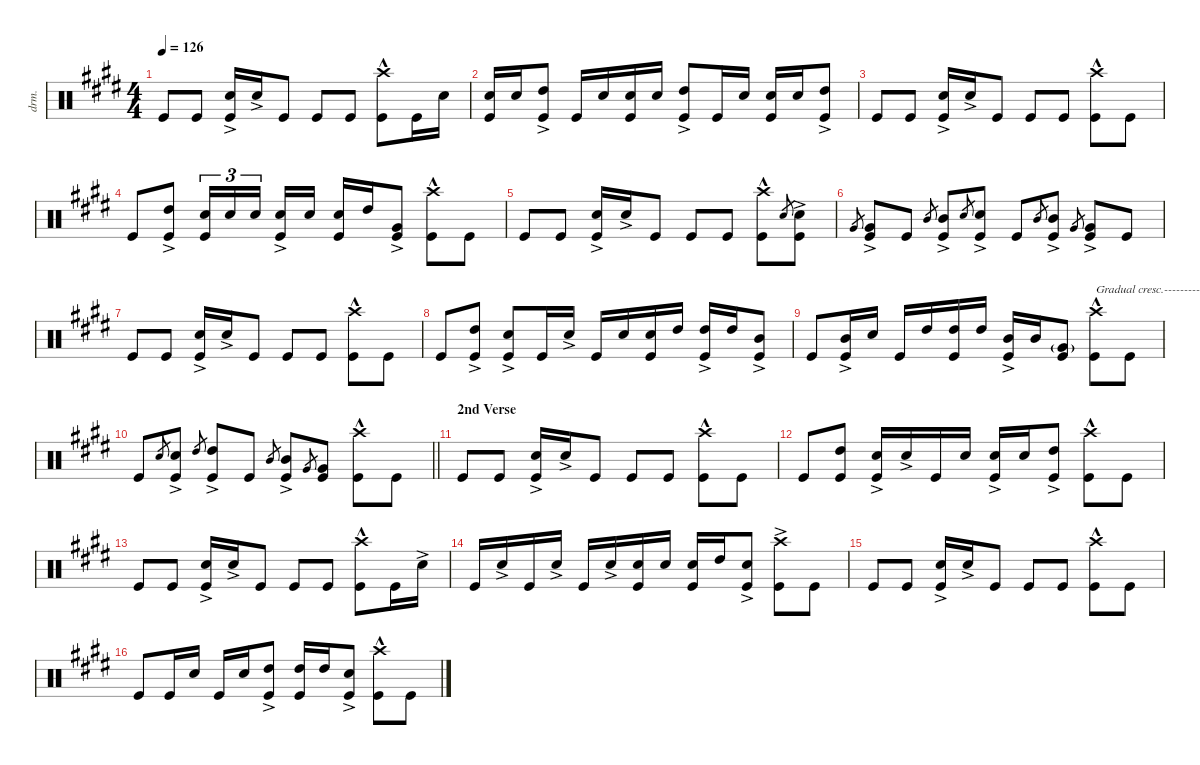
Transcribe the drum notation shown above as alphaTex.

\defaultSystemsLayout 4
\hideDynamics
\bracketExtendMode nobrackets
\otherSystemsTrackNameOrientation horizontal
\track ("Mitch" "drm.") {instrument percussion}
\staff {score}
\articulation defaults
\ts (4 4)
\tempo 126
\clef neutral
\ks e "Kick (hit)"{acc forcenatural}.8{dy f beam Up} "Kick (hit)"{acc forcenatural}.8{beam Up}
("Snare (hit) 2"{ac acc forcenatural} "Kick (hit)"{acc forcenatural}).16{beam Up} "Snare (hit) 2"{ac acc forcenatural}.16{beam Up} "Kick (hit)"{acc forcenatural}.8{beam Up} "Kick (hit)"{acc forcenatural}.8{beam Up} "Kick (hit)"{acc forcenatural}.8{beam Up} ("Crash high (hit)"{hac acc forcenatural} "Kick (hit)"{acc forcenatural}).8{beam Down} "Kick (hit)"{acc forcenatural}.16{beam Down} "Snare (hit) 2"{acc forcenatural}.16{beam Down} |
("Snare (hit) 2"{acc forcenatural} "Kick (hit)"{acc forcenatural}).16{beam Up} "Snare (hit) 2"{acc forcenatural}.16{beam Up} ("High Tom (hit)"{ac acc forcenatural} "Kick (hit)"{acc forcenatural}).8{beam Up} "Kick (hit)"{acc forcenatural}.16{beam Up} "Snare (hit) 2"{acc forcenatural}.16{beam Up} ("Snare (hit) 2"{acc forcenatural} "Kick (hit)"{acc forcenatural}).16{beam Up} "Snare (hit) 2"{acc forcenatural}.16{beam Up} ("High Tom (hit)"{ac acc forcenatural} "Kick (hit)"{acc forcenatural}).8{beam Up} "Kick (hit)"{acc forcenatural}.16{beam Up} "Snare (hit) 2"{acc forcenatural}.16{beam Up} ("Snare (hit) 2"{acc forcenatural} "Kick (hit)"{acc forcenatural}).16{beam Up} "Snare (hit) 2"{acc forcenatural}.16{beam Up} ("High Tom (hit)"{ac acc forcenatural} "Kick (hit)"{acc forcenatural}).8{beam Up} |
"Kick (hit)"{acc forcenatural}.8{beam Up} "Kick (hit)"{acc forcenatural}.8{beam Up} ("Snare (hit) 2"{ac acc forcenatural} "Kick (hit)"{acc forcenatural}).16{beam Up} "Snare (hit) 2"{ac acc forcenatural}.16{beam Up} "Kick (hit)"{acc forcenatural}.8{beam Up} "Kick (hit)"{acc forcenatural}.8{beam Up} "Kick (hit)"{acc forcenatural}.8{beam Up} ("Crash high (hit)"{hac acc forcenatural} "Kick (hit)"{acc forcenatural}).8{beam Down} "Kick (hit)"{acc forcenatural}.8{beam Down} |
"Kick (hit)"{acc forcenatural}.8{beam Up} ("High Tom (hit)"{ac acc forcenatural} "Kick (hit)"{acc forcenatural}).8{beam Up} ("Snare (hit) 2"{acc forcenatural} "Kick (hit)"{acc forcenatural}).16{tu (3 2) beam Up} "Snare (hit) 2"{acc forcenatural}.16{tu (3 2) beam Up} "Snare (hit) 2"{acc forcenatural}.16{tu (3 2) beam Up} ("Snare (hit) 2"{ac acc forcenatural} "Kick (hit)"{acc forcenatural}).16{beam Up} "Snare (hit) 2"{acc forcenatural}.16{beam Up} ("Snare (hit) 2"{acc forcenatural} "Kick (hit)"{acc forcenatural}).16{beam Up} "High Tom (hit)"{acc forcenatural}.16{beam Up} ("Very Low Tom (hit)"{ac acc forcenatural} "Kick (hit)"{acc forcenatural}).8{beam Up} ("Crash high (hit)"{hac acc forcenatural} "Kick (hit)"{acc forcenatural}).8{beam Down} "Kick (hit)"{acc forcenatural}.8{beam Down} |
"Kick (hit)"{acc forcenatural}.8{beam Up} "Kick (hit)"{acc forcenatural}.8{beam Up} ("Snare (hit) 2"{ac acc forcenatural} "Kick (hit)"{acc forcenatural}).16{beam Up} "Snare (hit) 2"{ac acc forcenatural}.16{beam Up} "Kick (hit)"{acc forcenatural}.8{beam Up} "Kick (hit)"{acc forcenatural}.8{beam Up} "Kick (hit)"{acc forcenatural}.8{beam Up} ("Crash high (hit)"{hac acc forcenatural} "Kick (hit)"{acc forcenatural}).8{beam Down} "Snare (hit) 2"{acc forcenatural}.8{gr beam Up} ("Snare (hit) 2"{ac acc forcenatural} "Kick (hit)"{acc forcenatural}).8{beam Down} |
"Very Low Tom (hit)"{acc forcenatural}.8{gr beam Up} ("Very Low Tom (hit)"{ac acc forcenatural} "Kick (hit)"{acc forcenatural}).8{beam Up} "Kick (hit)"{acc forcenatural}.8{beam Up} "Mid Tom (hit)"{acc forcenatural}.8{gr beam Up} ("Mid Tom (hit)"{ac acc forcenatural} "Kick (hit)"{acc forcenatural}).8{beam Up} "Snare (hit) 2"{acc forcenatural}.8{gr beam Up} ("Snare (hit) 2"{ac acc forcenatural} "Kick (hit)"{acc forcenatural}).8{beam Up} "Kick (hit)"{acc forcenatural}.8{beam Up} "Mid Tom (hit)"{acc forcenatural}.8{gr beam Up} ("Mid Tom (hit)"{ac acc forcenatural} "Kick (hit)"{acc forcenatural}).8{beam Up} "Very Low Tom (hit)"{acc forcenatural}.8{gr beam Up} ("Very Low Tom (hit)"{ac acc forcenatural} "Kick (hit)"{acc forcenatural}).8{beam Up} "Kick (hit)"{acc forcenatural}.8{beam Up} |
"Kick (hit)"{acc forcenatural}.8{beam Up} "Kick (hit)"{acc forcenatural}.8{beam Up} ("Snare (hit) 2"{ac acc forcenatural} "Kick (hit)"{acc forcenatural}).16{beam Up} "Snare (hit) 2"{ac acc forcenatural}.16{beam Up} "Kick (hit)"{acc forcenatural}.8{beam Up} "Kick (hit)"{acc forcenatural}.8{beam Up} "Kick (hit)"{acc forcenatural}.8{beam Up} ("Crash high (hit)"{hac acc forcenatural} "Kick (hit)"{acc forcenatural}).8{beam Down} "Kick (hit)"{acc forcenatural}.8{beam Down} |
"Kick (hit)"{acc forcenatural}.8{beam Up} ("High Tom (hit)"{ac acc forcenatural} "Kick (hit)"{acc forcenatural}).8{beam Up} ("Snare (hit) 2"{ac acc forcenatural} "Kick (hit)"{acc forcenatural}).8{beam Up} "Kick (hit)"{acc forcenatural}.16{beam Up} "Snare (hit) 2"{ac acc forcenatural}.16{beam Up} "Kick (hit)"{acc forcenatural}.16{beam Up} "Snare (hit) 2"{acc forcenatural}.16{beam Up} ("Snare (hit) 2"{acc forcenatural} "Kick (hit)"{acc forcenatural}).16{beam Up} "High Tom (hit)"{acc forcenatural}.16{beam Up} ("High Tom (hit)"{ac acc forcenatural} "Kick (hit)"{acc forcenatural}).16{beam Up} "High Tom (hit)"{acc forcenatural}.16{beam Up} ("Mid Tom (hit)"{ac acc forcenatural} "Kick (hit)"{acc forcenatural}).8{beam Up} |
"Kick (hit)"{acc forcenatural}.8{beam Up} ("Mid Tom (hit)"{ac acc forcenatural} "Kick (hit)"{acc forcenatural}).16{beam Up} "Snare (hit) 2"{acc forcenatural}.16{beam Up} "Kick (hit)"{acc forcenatural}.16{beam Up} "High Tom (hit)"{acc forcenatural}.16{beam Up} ("High Tom (hit)"{acc forcenatural} "Kick (hit)"{acc forcenatural}).16{beam Up} "High Tom (hit)"{acc forcenatural}.16{beam Up} ("Mid Tom (hit)"{ac acc forcenatural} "Kick (hit)"{acc forcenatural}).16{beam Up} "Mid Tom (hit)"{acc forcenatural}.16{beam Up} ("Very Low Tom (hit)"{g acc forcenatural} "Kick (hit)"{acc forcenatural}).8{beam Up} ("Crash high (hit)"{hac acc forcenatural} "Kick (hit)"{acc forcenatural}).8{txt "Gradual cresc.---------------------------------" beam Down} "Kick (hit)"{acc forcenatural}.8{beam Down} |
\barLineRight lightlight "Kick (hit)"{acc forcenatural}.8{beam Up} "Snare (hit) 2"{acc forcenatural}.8{gr dy mf beam Up}
("Snare (hit) 2"{ac acc forcenatural} "Kick (hit)"{acc forcenatural}).8{dy f beam Up} "High Tom (hit)"{acc forcenatural}.8{gr beam Up} ("High Tom (hit)"{ac acc forcenatural} "Kick (hit)"{acc forcenatural}).8{beam Up} "Kick (hit)"{acc forcenatural}.8{beam Up} "Mid Tom (hit)"{acc forcenatural}.8{gr beam Up} ("Mid Tom (hit)"{ac acc forcenatural} "Kick (hit)"{acc forcenatural}).8{beam Up} "Very Low Tom (hit)"{acc forcenatural}.8{gr dy mf beam Up} ("Very Low Tom (hit)"{acc forcenatural} "Kick (hit)"{acc forcenatural}).8{dy f beam Up} ("Crash high (hit)"{hac acc forcenatural} "Kick (hit)"{acc forcenatural}).8{beam Down} "Kick (hit)"{acc forcenatural}.8{beam Down} |
\section ("" "2nd Verse")
"Kick (hit)"{acc forcenatural}.8{beam Up} "Kick (hit)"{acc forcenatural}.8{beam Up} ("Snare (hit) 2"{ac acc forcenatural} "Kick (hit)"{acc forcenatural}).16{beam Up} "Snare (hit) 2"{ac acc forcenatural}.16{beam Up} "Kick (hit)"{acc forcenatural}.8{beam Up} "Kick (hit)"{acc forcenatural}.8{beam Up} "Kick (hit)"{acc forcenatural}.8{beam Up} ("Crash high (hit)"{hac acc forcenatural} "Kick (hit)"{acc forcenatural}).8{beam Down} "Kick (hit)"{acc forcenatural}.8{beam Down} |
"Kick (hit)"{acc forcenatural}.8{beam Up} ("High Tom (hit)"{acc forcenatural} "Kick (hit)"{acc forcenatural}).8{beam Up} ("Snare (hit) 2"{ac acc forcenatural} "Kick (hit)"{acc forcenatural}).16{beam Up} "Snare (hit) 2"{ac acc forcenatural}.16{beam Up} "Kick (hit)"{acc forcenatural}.16{beam Up} "Snare (hit) 2"{acc forcenatural}.16{beam Up} ("Snare (hit) 2"{ac acc forcenatural} "Kick (hit)"{acc forcenatural}).16{beam Up} "Snare (hit) 2"{acc forcenatural}.16{beam Up} ("High Tom (hit)"{ac acc forcenatural} "Kick (hit)"{acc forcenatural}).8{beam Up} ("Crash high (hit)"{hac acc forcenatural} "Kick (hit)"{acc forcenatural}).8{beam Down} "Kick (hit)"{acc forcenatural}.8{beam Down} |
"Kick (hit)"{acc forcenatural}.8{beam Up} "Kick (hit)"{acc forcenatural}.8{beam Up} ("Snare (hit) 2"{ac acc forcenatural} "Kick (hit)"{acc forcenatural}).16{beam Up} "Snare (hit) 2"{ac acc forcenatural}.16{beam Up} "Kick (hit)"{acc forcenatural}.8{beam Up} "Kick (hit)"{acc forcenatural}.8{beam Up} "Kick (hit)"{acc forcenatural}.8{beam Up} ("Crash high (hit)"{hac acc forcenatural} "Kick (hit)"{acc forcenatural}).8{beam Down} "Kick (hit)"{acc forcenatural}.16{beam Down} "Snare (hit) 2"{ac acc forcenatural}.16{beam Down} |
"Kick (hit)"{acc forcenatural}.16{beam Up} "Snare (hit) 2"{ac acc forcenatural}.16{beam Up} "Kick (hit)"{acc forcenatural}.16{beam Up} "Snare (hit) 2"{ac acc forcenatural}.16{beam Up} "Kick (hit)"{acc forcenatural}.16{beam Up} "Snare (hit) 2"{ac acc forcenatural}.16{beam Up} ("Snare (hit) 2"{acc forcenatural} "Kick (hit)"{acc forcenatural}).16{beam Up} "Snare (hit) 2"{acc forcenatural}.16{beam Up} ("Snare (hit) 2"{acc forcenatural} "Kick (hit)"{acc forcenatural}).16{beam Up} "High Tom (hit)"{acc forcenatural}.16{beam Up} ("Snare (hit) 2"{ac acc forcenatural} "Kick (hit)"{acc forcenatural}).8{beam Up} ("Crash high (hit)"{ac acc forcenatural} "Kick (hit)"{acc forcenatural}).8{beam Down} "Kick (hit)"{acc forcenatural}.8{beam Down} |
"Kick (hit)"{acc forcenatural}.8{beam Up} "Kick (hit)"{acc forcenatural}.8{beam Up} ("Snare (hit) 2"{ac acc forcenatural} "Kick (hit)"{acc forcenatural}).16{beam Up} "Snare (hit) 2"{ac acc forcenatural}.16{beam Up} "Kick (hit)"{acc forcenatural}.8{beam Up} "Kick (hit)"{acc forcenatural}.8{beam Up} "Kick (hit)"{acc forcenatural}.8{beam Up} ("Crash high (hit)"{hac acc forcenatural} "Kick (hit)"{acc forcenatural}).8{beam Down} "Kick (hit)"{acc forcenatural}.8{beam Down} |
"Kick (hit)"{acc forcenatural}.8{beam Up} "Kick (hit)"{acc forcenatural}.16{beam Up} "Snare (hit) 2"{acc forcenatural}.16{beam Up} "Kick (hit)"{acc forcenatural}.16{beam Up} "Snare (hit) 2"{acc forcenatural}.16{beam Up} ("High Tom (hit)"{ac acc forcenatural} "Kick (hit)"{acc forcenatural}).8{beam Up} ("High Tom (hit)"{acc forcenatural} "Kick (hit)"{acc forcenatural}).16{beam Up} "High Tom (hit)"{acc forcenatural}.16{beam Up} ("Snare (hit) 2"{ac acc forcenatural} "Kick (hit)"{acc forcenatural}).8{beam Up} ("Crash high (hit)"{hac acc forcenatural} "Kick (hit)"{acc forcenatural}).8{beam Down} "Kick (hit)"{acc forcenatural}.8{beam Down}
